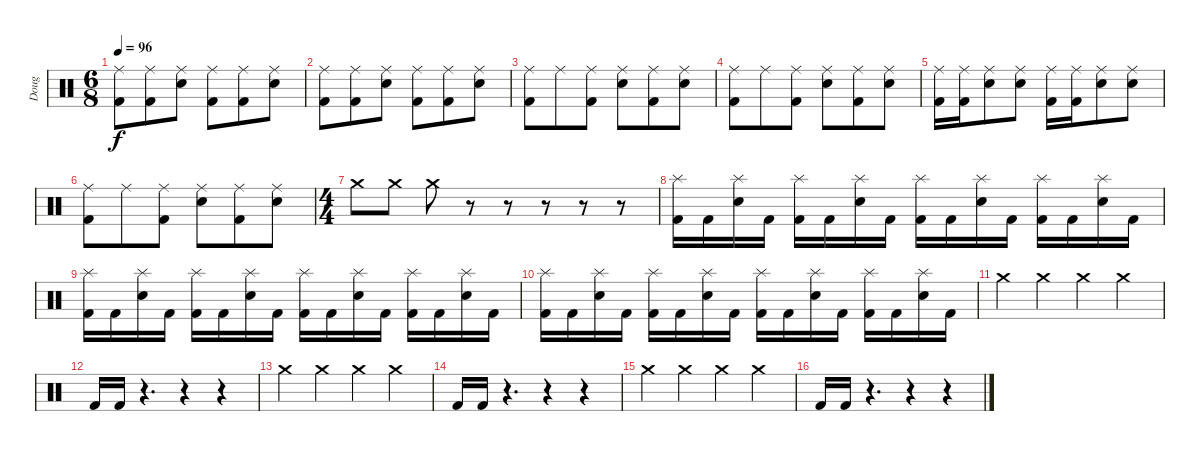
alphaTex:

\track ("Doug" "Doug") {instrument percussion}
\staff {score}
\articulation defaults
\ts (6 8)
\tempo 96
\clef neutral
\ks c
("Kick (hit) 2" "Ride (middle)").8{dy f} ("Kick (hit) 2" "Ride (middle)").8 ("Electric Snare (hit)" "Ride (middle)").8 ("Kick (hit) 2" "Ride (middle)").8 ("Kick (hit) 2" "Ride (middle)").8 ("Electric Snare (hit)" "Ride (middle)").8 |
("Kick (hit) 2" "Ride (middle)").8 ("Kick (hit) 2" "Ride (middle)").8 ("Electric Snare (hit)" "Ride (middle)").8 ("Kick (hit) 2" "Ride (middle)").8 ("Kick (hit) 2" "Ride (middle)").8 ("Electric Snare (hit)" "Ride (middle)").8 |
("Kick (hit) 2" "Ride (middle)").8 "Ride (middle)".8 ("Kick (hit) 2" "Ride (middle)").8 ("Electric Snare (hit)" "Ride (middle)").8 ("Kick (hit) 2" "Ride (middle)").8 ("Electric Snare (hit)" "Ride (middle)").8 |
("Kick (hit) 2" "Ride (middle)").8 "Ride (middle)".8 ("Kick (hit) 2" "Ride (middle)").8 ("Electric Snare (hit)" "Ride (middle)").8 ("Kick (hit) 2" "Ride (middle)").8 ("Electric Snare (hit)" "Ride (middle)").8 |
("Kick (hit) 2" "Ride (middle)").16 ("Kick (hit) 2" "Ride (middle)").16 ("Electric Snare (hit)" "Ride (middle)").8 ("Electric Snare (hit)" "Ride (middle)").8 ("Kick (hit) 2" "Ride (middle)").16 ("Kick (hit) 2" "Ride (middle)").16 ("Electric Snare (hit)" "Ride (middle)").8 ("Electric Snare (hit)" "Ride (middle)").8 |
("Kick (hit) 2" "Ride (middle)").8 "Ride (middle)".8 ("Kick (hit) 2" "Ride (middle)").8 ("Electric Snare (hit)" "Ride (middle)").8 ("Kick (hit) 2" "Ride (middle)").8 ("Electric Snare (hit)" "Ride (middle)").8 |
\ts (4 4)
"Crash medium (hit)".8 "Crash medium (hit)".8 "Crash medium (hit)".8 r.8 r.8 r.8 r.8 r.8 |
("Kick (hit) 2" "Splash (hit)").16 "Kick (hit) 2".16 ("Electric Snare (hit)" "Splash (hit)").16 "Kick (hit) 2".16 ("Kick (hit) 2" "Splash (hit)").16 "Kick (hit) 2".16 ("Electric Snare (hit)" "Splash (hit)").16 "Kick (hit) 2".16 ("Kick (hit) 2" "Splash (hit)").16 "Kick (hit) 2".16 ("Electric Snare (hit)" "Splash (hit)").16 "Kick (hit) 2".16 ("Kick (hit) 2" "Splash (hit)").16 "Kick (hit) 2".16 ("Electric Snare (hit)" "Splash (hit)").16 "Kick (hit) 2".16 |
("Kick (hit) 2" "Splash (hit)").16 "Kick (hit) 2".16 ("Electric Snare (hit)" "Splash (hit)").16 "Kick (hit) 2".16 ("Kick (hit) 2" "Splash (hit)").16 "Kick (hit) 2".16 ("Electric Snare (hit)" "Splash (hit)").16 "Kick (hit) 2".16 ("Kick (hit) 2" "Splash (hit)").16 "Kick (hit) 2".16 ("Electric Snare (hit)" "Splash (hit)").16 "Kick (hit) 2".16 ("Kick (hit) 2" "Splash (hit)").16 "Kick (hit) 2".16 ("Electric Snare (hit)" "Splash (hit)").16 "Kick (hit) 2".16 |
("Kick (hit) 2" "Splash (hit)").16 "Kick (hit) 2".16 ("Electric Snare (hit)" "Splash (hit)").16 "Kick (hit) 2".16 ("Kick (hit) 2" "Splash (hit)").16 "Kick (hit) 2".16 ("Electric Snare (hit)" "Splash (hit)").16 "Kick (hit) 2".16 ("Kick (hit) 2" "Splash (hit)").16 "Kick (hit) 2".16 ("Electric Snare (hit)" "Splash (hit)").16 "Kick (hit) 2".16 ("Kick (hit) 2" "Splash (hit)").16 "Kick (hit) 2".16 ("Electric Snare (hit)" "Splash (hit)").16 "Kick (hit) 2".16 |
"Crash medium (hit)".4 "Crash medium (hit)".4 "Crash medium (hit)".4 "Crash medium (hit)".4 |
"Kick (hit) 2".16 "Kick (hit) 2".16 r.4{d} r.4 r.4 |
"Crash medium (hit)".4 "Crash medium (hit)".4 "Crash medium (hit)".4 "Crash medium (hit)".4 |
"Kick (hit) 2".16 "Kick (hit) 2".16 r.4{d} r.4 r.4 |
"Crash medium (hit)".4 "Crash medium (hit)".4 "Crash medium (hit)".4 "Crash medium (hit)".4 |
"Kick (hit) 2".16 "Kick (hit) 2".16 r.4{d} r.4 r.4
